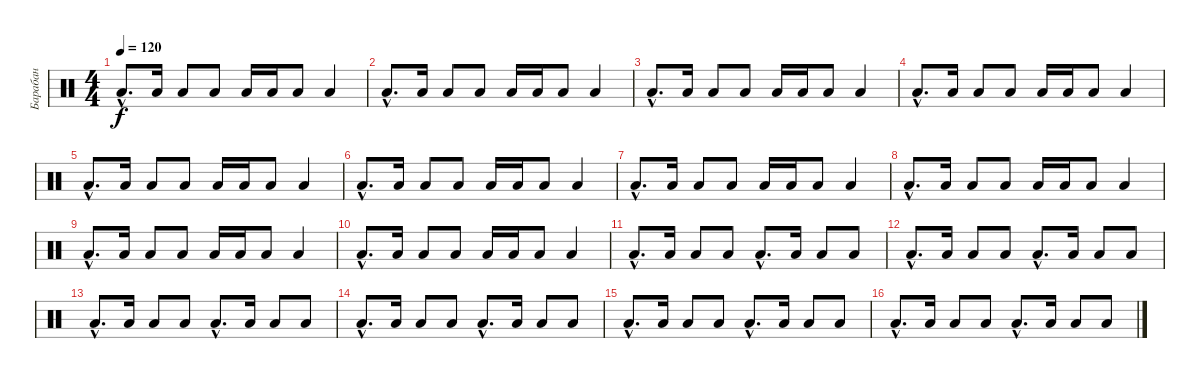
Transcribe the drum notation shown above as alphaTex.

\track ("Барабан" "Барабан") {instrument percussion}
\staff {score}
\articulation defaults
\ts (4 4)
\tempo 120
\clef neutral
\ks c "Low Floor Tom (hit)"{hac}.8{d dy f} "Low Floor Tom (hit)".16 "Low Floor Tom (hit)".8 "Low Floor Tom (hit)".8 "Low Floor Tom (hit)".16 "Low Floor Tom (hit)".16 "Low Floor Tom (hit)".8 "Low Floor Tom (hit)".4
|
"Low Floor Tom (hit)"{hac}.8{d} "Low Floor Tom (hit)".16 "Low Floor Tom (hit)".8 "Low Floor Tom (hit)".8 "Low Floor Tom (hit)".16 "Low Floor Tom (hit)".16 "Low Floor Tom (hit)".8 "Low Floor Tom (hit)".4 |
"Low Floor Tom (hit)"{hac}.8{d} "Low Floor Tom (hit)".16 "Low Floor Tom (hit)".8 "Low Floor Tom (hit)".8 "Low Floor Tom (hit)".16 "Low Floor Tom (hit)".16 "Low Floor Tom (hit)".8 "Low Floor Tom (hit)".4 |
"Low Floor Tom (hit)"{hac}.8{d} "Low Floor Tom (hit)".16 "Low Floor Tom (hit)".8 "Low Floor Tom (hit)".8 "Low Floor Tom (hit)".16 "Low Floor Tom (hit)".16 "Low Floor Tom (hit)".8 "Low Floor Tom (hit)".4 |
"Low Floor Tom (hit)"{hac}.8{d} "Low Floor Tom (hit)".16 "Low Floor Tom (hit)".8 "Low Floor Tom (hit)".8 "Low Floor Tom (hit)".16 "Low Floor Tom (hit)".16 "Low Floor Tom (hit)".8 "Low Floor Tom (hit)".4 |
"Low Floor Tom (hit)"{hac}.8{d} "Low Floor Tom (hit)".16 "Low Floor Tom (hit)".8 "Low Floor Tom (hit)".8 "Low Floor Tom (hit)".16 "Low Floor Tom (hit)".16 "Low Floor Tom (hit)".8 "Low Floor Tom (hit)".4 |
"Low Floor Tom (hit)"{hac}.8{d} "Low Floor Tom (hit)".16 "Low Floor Tom (hit)".8 "Low Floor Tom (hit)".8 "Low Floor Tom (hit)".16 "Low Floor Tom (hit)".16 "Low Floor Tom (hit)".8 "Low Floor Tom (hit)".4 |
"Low Floor Tom (hit)"{hac}.8{d} "Low Floor Tom (hit)".16 "Low Floor Tom (hit)".8 "Low Floor Tom (hit)".8 "Low Floor Tom (hit)".16 "Low Floor Tom (hit)".16 "Low Floor Tom (hit)".8 "Low Floor Tom (hit)".4 |
"Low Floor Tom (hit)"{hac}.8{d} "Low Floor Tom (hit)".16 "Low Floor Tom (hit)".8 "Low Floor Tom (hit)".8 "Low Floor Tom (hit)".16 "Low Floor Tom (hit)".16 "Low Floor Tom (hit)".8 "Low Floor Tom (hit)".4 |
"Low Floor Tom (hit)"{hac}.8{d} "Low Floor Tom (hit)".16 "Low Floor Tom (hit)".8 "Low Floor Tom (hit)".8 "Low Floor Tom (hit)".16 "Low Floor Tom (hit)".16 "Low Floor Tom (hit)".8 "Low Floor Tom (hit)".4 |
"Low Floor Tom (hit)"{hac}.8{d} "Low Floor Tom (hit)".16 "Low Floor Tom (hit)".8 "Low Floor Tom (hit)".8 "Low Floor Tom (hit)"{hac}.8{d} "Low Floor Tom (hit)".16 "Low Floor Tom (hit)".8 "Low Floor Tom (hit)".8 |
"Low Floor Tom (hit)"{hac}.8{d} "Low Floor Tom (hit)".16 "Low Floor Tom (hit)".8 "Low Floor Tom (hit)".8 "Low Floor Tom (hit)"{hac}.8{d} "Low Floor Tom (hit)".16 "Low Floor Tom (hit)".8 "Low Floor Tom (hit)".8 |
"Low Floor Tom (hit)"{hac}.8{d} "Low Floor Tom (hit)".16 "Low Floor Tom (hit)".8 "Low Floor Tom (hit)".8 "Low Floor Tom (hit)"{hac}.8{d} "Low Floor Tom (hit)".16 "Low Floor Tom (hit)".8 "Low Floor Tom (hit)".8 |
"Low Floor Tom (hit)"{hac}.8{d} "Low Floor Tom (hit)".16 "Low Floor Tom (hit)".8 "Low Floor Tom (hit)".8 "Low Floor Tom (hit)"{hac}.8{d} "Low Floor Tom (hit)".16 "Low Floor Tom (hit)".8 "Low Floor Tom (hit)".8 |
"Low Floor Tom (hit)"{hac}.8{d} "Low Floor Tom (hit)".16 "Low Floor Tom (hit)".8 "Low Floor Tom (hit)".8 "Low Floor Tom (hit)"{hac}.8{d} "Low Floor Tom (hit)".16 "Low Floor Tom (hit)".8 "Low Floor Tom (hit)".8 |
"Low Floor Tom (hit)"{hac}.8{d} "Low Floor Tom (hit)".16 "Low Floor Tom (hit)".8 "Low Floor Tom (hit)".8 "Low Floor Tom (hit)"{hac}.8{d} "Low Floor Tom (hit)".16 "Low Floor Tom (hit)".8 "Low Floor Tom (hit)".8
